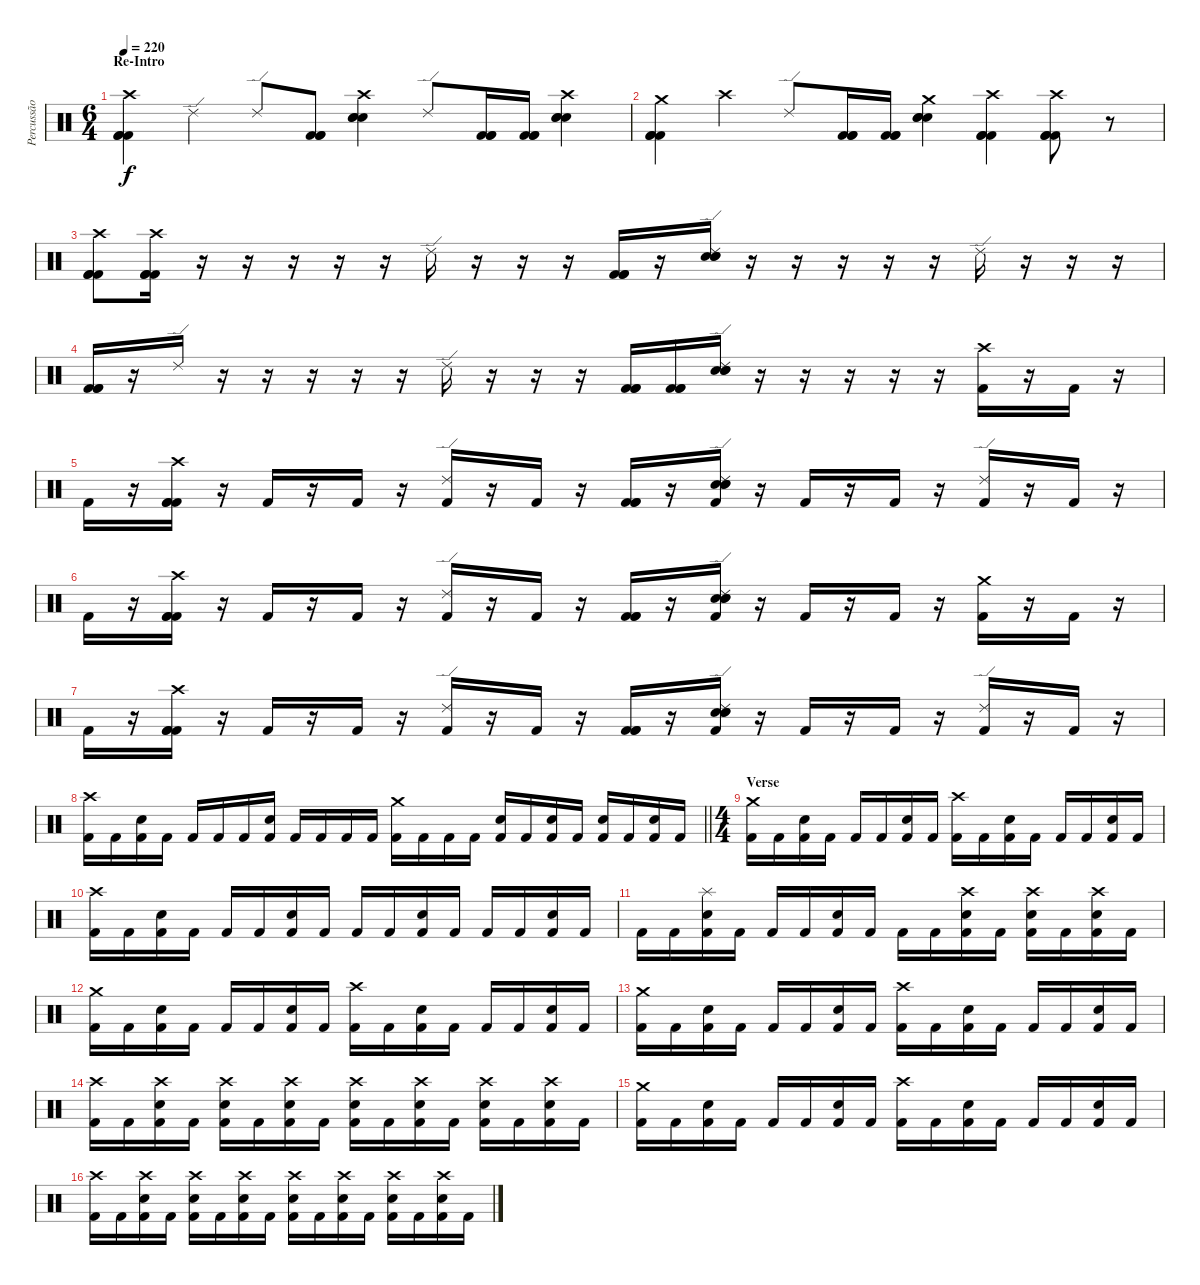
\track ("Percussão" "Percussão") {instrument percussion}
\staff {score}
\articulation defaults
\ts (6 4)
\section ("" "Re-Intro")
\tempo 220
\clef neutral
\ks c
("Crash high (hit)" "Kick (hit) 2" "Kick (hit) 2" "Kick (hit) 2").4{dy f} "Ride (edge) 2".4 "Ride (edge) 2".8 ("Kick (hit) 2" "Kick (hit) 2" "Kick (hit) 2").8 ("Crash high (hit)" "Electric Snare (hit)" "Electric Snare (hit)" "Electric Snare (hit)").4 "Ride (edge) 2".8 ("Kick (hit) 2" "Kick (hit) 2" "Kick (hit) 2").16 ("Kick (hit) 2" "Kick (hit) 2" "Kick (hit) 2").16 ("Crash high (hit)" "Electric Snare (hit)" "Electric Snare (hit)" "Electric Snare (hit)").4 |
("Crash medium (hit)" "Kick (hit) 2" "Kick (hit) 2" "Kick (hit) 2").4 "Crash high (hit)".4 "Ride (edge) 2".8 ("Kick (hit) 2" "Kick (hit) 2" "Kick (hit) 2").16 ("Kick (hit) 2" "Kick (hit) 2" "Kick (hit) 2").16 ("Crash medium (hit)" "Electric Snare (hit)" "Electric Snare (hit)" "Electric Snare (hit)").4 ("Crash high (hit)" "Kick (hit) 2" "Kick (hit) 2" "Kick (hit) 2").4 ("Crash high (hit)" "Kick (hit) 2" "Kick (hit) 2" "Kick (hit) 2").8 r.8 |
("Crash high (hit)" "Kick (hit) 2" "Kick (hit) 2" "Kick (hit) 2").8 ("Crash high (hit)" "Kick (hit) 2" "Kick (hit) 2" "Kick (hit) 2").16 r.16 r.16 r.16 r.16 r.16 "Ride (edge) 2".16 r.16 r.16 r.16 ("Kick (hit) 2" "Kick (hit) 2" "Kick (hit) 2").16 r.16 ("Ride (edge) 2" "Electric Snare (hit)" "Electric Snare (hit)" "Electric Snare (hit)").16 r.16 r.16 r.16 r.16 r.16 "Ride (edge) 2".16 r.16 r.16 r.16 |
("Kick (hit) 2" "Kick (hit) 2" "Kick (hit) 2").16 r.16 "Ride (edge) 2".16 r.16 r.16 r.16 r.16 r.16 "Ride (edge) 2".16 r.16 r.16 r.16 ("Kick (hit) 2" "Kick (hit) 2" "Kick (hit) 2").16 ("Kick (hit) 2" "Kick (hit) 2" "Kick (hit) 2").16 ("Ride (edge) 2" "Electric Snare (hit)" "Electric Snare (hit)" "Electric Snare (hit)").16 r.16 r.16 r.16 r.16 r.16 ("Crash high (hit)" "Kick (hit) 2").16 r.16 "Kick (hit) 2".16 r.16 |
"Kick (hit) 2".16 r.16 ("Crash high (hit)" "Kick (hit) 2" "Kick (hit) 2" "Kick (hit) 2").16 r.16 "Kick (hit) 2".16 r.16 "Kick (hit) 2".16 r.16 ("Ride (edge) 2" "Kick (hit) 2").16 r.16 "Kick (hit) 2".16 r.16 ("Kick (hit) 2" "Kick (hit) 2" "Kick (hit) 2").16 r.16 ("Ride (edge) 2" "Electric Snare (hit)" "Electric Snare (hit)" "Electric Snare (hit)" "Kick (hit) 2").16 r.16 "Kick (hit) 2".16 r.16 "Kick (hit) 2".16 r.16 ("Ride (edge) 2" "Kick (hit) 2").16 r.16 "Kick (hit) 2".16 r.16 |
"Kick (hit) 2".16 r.16 ("Crash high (hit)" "Kick (hit) 2" "Kick (hit) 2" "Kick (hit) 2").16 r.16 "Kick (hit) 2".16 r.16 "Kick (hit) 2".16 r.16 ("Ride (edge) 2" "Kick (hit) 2").16 r.16 "Kick (hit) 2".16 r.16 ("Kick (hit) 2" "Kick (hit) 2" "Kick (hit) 2").16 r.16 ("Ride (edge) 2" "Electric Snare (hit)" "Electric Snare (hit)" "Electric Snare (hit)" "Kick (hit) 2").16 r.16 "Kick (hit) 2".16 r.16 "Kick (hit) 2".16 r.16 ("Crash medium (hit)" "Kick (hit) 2").16 r.16 "Kick (hit) 2".16 r.16 |
"Kick (hit) 2".16 r.16 ("Crash high (hit)" "Kick (hit) 2" "Kick (hit) 2" "Kick (hit) 2").16 r.16 "Kick (hit) 2".16 r.16 "Kick (hit) 2".16 r.16 ("Ride (edge) 2" "Kick (hit) 2").16 r.16 "Kick (hit) 2".16 r.16 ("Kick (hit) 2" "Kick (hit) 2" "Kick (hit) 2").16 r.16 ("Ride (edge) 2" "Electric Snare (hit)" "Electric Snare (hit)" "Electric Snare (hit)" "Kick (hit) 2").16 r.16 "Kick (hit) 2".16 r.16 "Kick (hit) 2".16 r.16 ("Ride (edge) 2" "Kick (hit) 2").16 r.16 "Kick (hit) 2".16 r.16 |
\barLineRight lightlight
("Crash high (hit)" "Kick (hit) 2").16 "Kick (hit) 2".16 ("Electric Snare (hit)" "Kick (hit) 2").16 "Kick (hit) 2".16 "Kick (hit) 2".16 "Kick (hit) 2".16 "Kick (hit) 2".16 ("Electric Snare (hit)" "Kick (hit) 2").16 "Kick (hit) 2".16 "Kick (hit) 2".16 "Kick (hit) 2".16 "Kick (hit) 2".16 ("Crash medium (hit)" "Kick (hit) 2").16 "Kick (hit) 2".16 "Kick (hit) 2".16 "Kick (hit) 2".16 ("Electric Snare (hit)" "Kick (hit) 2").16 "Kick (hit) 2".16 ("Electric Snare (hit)" "Kick (hit) 2").16 "Kick (hit) 2".16 ("Electric Snare (hit)" "Kick (hit) 2").16 "Kick (hit) 2".16 ("Electric Snare (hit)" "Kick (hit) 2").16 "Kick (hit) 2".16 |
\ts (4 4)
\section ("" "Verse")
("Crash medium (hit)" "Kick (hit) 2").16 "Kick (hit) 2".16 ("Electric Snare (hit)" "Kick (hit) 2").16 "Kick (hit) 2".16 "Kick (hit) 2".16 "Kick (hit) 2".16 ("Electric Snare (hit)" "Kick (hit) 2").16 "Kick (hit) 2".16 ("Crash high (hit)" "Kick (hit) 2").16 "Kick (hit) 2".16 ("Electric Snare (hit)" "Kick (hit) 2").16 "Kick (hit) 2".16 "Kick (hit) 2".16 "Kick (hit) 2".16 ("Electric Snare (hit)" "Kick (hit) 2").16 "Kick (hit) 2".16 |
("Crash high (hit)" "Kick (hit) 2").16 "Kick (hit) 2".16 ("Electric Snare (hit)" "Kick (hit) 2").16 "Kick (hit) 2".16 "Kick (hit) 2".16 "Kick (hit) 2".16 ("Electric Snare (hit)" "Kick (hit) 2").16 "Kick (hit) 2".16 "Kick (hit) 2".16 "Kick (hit) 2".16 ("Electric Snare (hit)" "Kick (hit) 2").16 "Kick (hit) 2".16 "Kick (hit) 2".16 "Kick (hit) 2".16 ("Electric Snare (hit)" "Kick (hit) 2").16 "Kick (hit) 2".16 |
"Kick (hit) 2".16 "Kick (hit) 2".16 ("Splash (hit)" "Electric Snare (hit)" "Kick (hit) 2").16 "Kick (hit) 2".16 "Kick (hit) 2".16 "Kick (hit) 2".16 ("Electric Snare (hit)" "Kick (hit) 2").16 "Kick (hit) 2".16 "Kick (hit) 2".16 "Kick (hit) 2".16 ("Crash high (hit)" "Electric Snare (hit)" "Kick (hit) 2").16 "Kick (hit) 2".16 ("Crash high (hit)" "Electric Snare (hit)" "Kick (hit) 2").16 "Kick (hit) 2".16 ("Crash high (hit)" "Electric Snare (hit)" "Kick (hit) 2").16 "Kick (hit) 2".16 |
("Crash medium (hit)" "Kick (hit) 2").16 "Kick (hit) 2".16 ("Electric Snare (hit)" "Kick (hit) 2").16 "Kick (hit) 2".16 "Kick (hit) 2".16 "Kick (hit) 2".16 ("Electric Snare (hit)" "Kick (hit) 2").16 "Kick (hit) 2".16 ("Crash high (hit)" "Kick (hit) 2").16 "Kick (hit) 2".16 ("Electric Snare (hit)" "Kick (hit) 2").16 "Kick (hit) 2".16 "Kick (hit) 2".16 "Kick (hit) 2".16 ("Electric Snare (hit)" "Kick (hit) 2").16 "Kick (hit) 2".16 |
("Crash medium (hit)" "Kick (hit) 2").16 "Kick (hit) 2".16 ("Electric Snare (hit)" "Kick (hit) 2").16 "Kick (hit) 2".16 "Kick (hit) 2".16 "Kick (hit) 2".16 ("Electric Snare (hit)" "Kick (hit) 2").16 "Kick (hit) 2".16 ("Crash high (hit)" "Kick (hit) 2").16 "Kick (hit) 2".16 ("Electric Snare (hit)" "Kick (hit) 2").16 "Kick (hit) 2".16 "Kick (hit) 2".16 "Kick (hit) 2".16 ("Electric Snare (hit)" "Kick (hit) 2").16 "Kick (hit) 2".16 |
("Crash high (hit)" "Kick (hit) 2").16 "Kick (hit) 2".16 ("Crash high (hit)" "Electric Snare (hit)" "Kick (hit) 2").16 "Kick (hit) 2".16 ("Crash high (hit)" "Electric Snare (hit)" "Kick (hit) 2").16 "Kick (hit) 2".16 ("Crash high (hit)" "Electric Snare (hit)" "Kick (hit) 2").16 "Kick (hit) 2".16 ("Crash high (hit)" "Electric Snare (hit)" "Kick (hit) 2").16 "Kick (hit) 2".16 ("Crash high (hit)" "Electric Snare (hit)" "Kick (hit) 2").16 "Kick (hit) 2".16 ("Crash high (hit)" "Electric Snare (hit)" "Kick (hit) 2").16 "Kick (hit) 2".16 ("Crash high (hit)" "Electric Snare (hit)" "Kick (hit) 2").16 "Kick (hit) 2".16 |
("Crash medium (hit)" "Kick (hit) 2").16 "Kick (hit) 2".16 ("Electric Snare (hit)" "Kick (hit) 2").16 "Kick (hit) 2".16 "Kick (hit) 2".16 "Kick (hit) 2".16 ("Electric Snare (hit)" "Kick (hit) 2").16 "Kick (hit) 2".16 ("Crash high (hit)" "Kick (hit) 2").16 "Kick (hit) 2".16 ("Electric Snare (hit)" "Kick (hit) 2").16 "Kick (hit) 2".16 "Kick (hit) 2".16 "Kick (hit) 2".16 ("Electric Snare (hit)" "Kick (hit) 2").16 "Kick (hit) 2".16 |
("Crash high (hit)" "Kick (hit) 2").16 "Kick (hit) 2".16 ("Crash high (hit)" "Electric Snare (hit)" "Kick (hit) 2").16 "Kick (hit) 2".16 ("Crash high (hit)" "Electric Snare (hit)" "Kick (hit) 2").16 "Kick (hit) 2".16 ("Crash high (hit)" "Electric Snare (hit)" "Kick (hit) 2").16 "Kick (hit) 2".16 ("Crash high (hit)" "Electric Snare (hit)" "Kick (hit) 2").16 "Kick (hit) 2".16 ("Crash high (hit)" "Electric Snare (hit)" "Kick (hit) 2").16 "Kick (hit) 2".16 ("Crash high (hit)" "Electric Snare (hit)" "Kick (hit) 2").16 "Kick (hit) 2".16 ("Crash high (hit)" "Electric Snare (hit)" "Kick (hit) 2").16 "Kick (hit) 2".16
